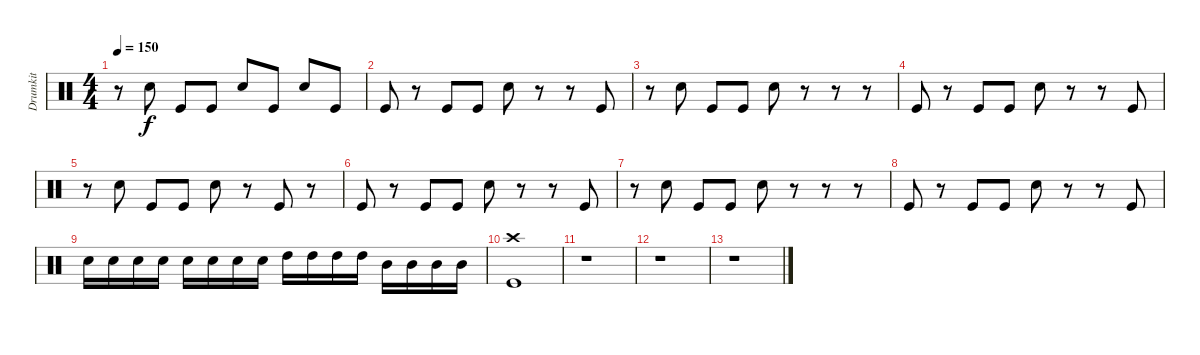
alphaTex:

\track ("Drumkit" "Drumkit") {instrument percussion}
\staff {score}
\articulation defaults
\ts (4 4)
\tempo 150
\clef neutral
\ks c
r.8{dy f} "Snare (hit) 2".8 "Kick (hit)".8 "Kick (hit)".8 "Snare (hit) 2".8 "Kick (hit)".8 "Snare (hit) 2".8 "Kick (hit)".8 |
"Kick (hit)".8 r.8 "Kick (hit)".8 "Kick (hit)".8 "Snare (hit) 2".8 r.8 r.8 "Kick (hit)".8 |
r.8 "Snare (hit) 2".8 "Kick (hit)".8 "Kick (hit)".8 "Snare (hit) 2".8 r.8 r.8 r.8 |
"Kick (hit)".8 r.8 "Kick (hit)".8 "Kick (hit)".8 "Snare (hit) 2".8 r.8 r.8 "Kick (hit)".8 |
r.8 "Snare (hit) 2".8 "Kick (hit)".8 "Kick (hit)".8 "Snare (hit) 2".8 r.8 "Kick (hit)".8 r.8 |
"Kick (hit)".8 r.8 "Kick (hit)".8 "Kick (hit)".8 "Snare (hit) 2".8 r.8 r.8 "Kick (hit)".8 |
r.8 "Snare (hit) 2".8 "Kick (hit)".8 "Kick (hit)".8 "Snare (hit) 2".8 r.8 r.8 r.8 |
"Kick (hit)".8 r.8 "Kick (hit)".8 "Kick (hit)".8 "Snare (hit) 2".8 r.8 r.8 "Kick (hit)".8 |
"Snare (hit) 2".16 "Snare (hit) 2".16 "Snare (hit) 2".16 "Snare (hit) 2".16 "Snare (hit) 2".16 "Snare (hit) 2".16 "Snare (hit) 2".16 "Snare (hit) 2".16 "High Tom (hit)".16 "High Tom (hit)".16 "High Tom (hit)".16 "High Tom (hit)".16 "Mid Tom (hit)".16 "Mid Tom (hit)".16 "Mid Tom (hit)".16 "Mid Tom (hit)".16 |
("Kick (hit)" "Crash high (hit)").1 |
r.1 |
r.1 |
r.1
